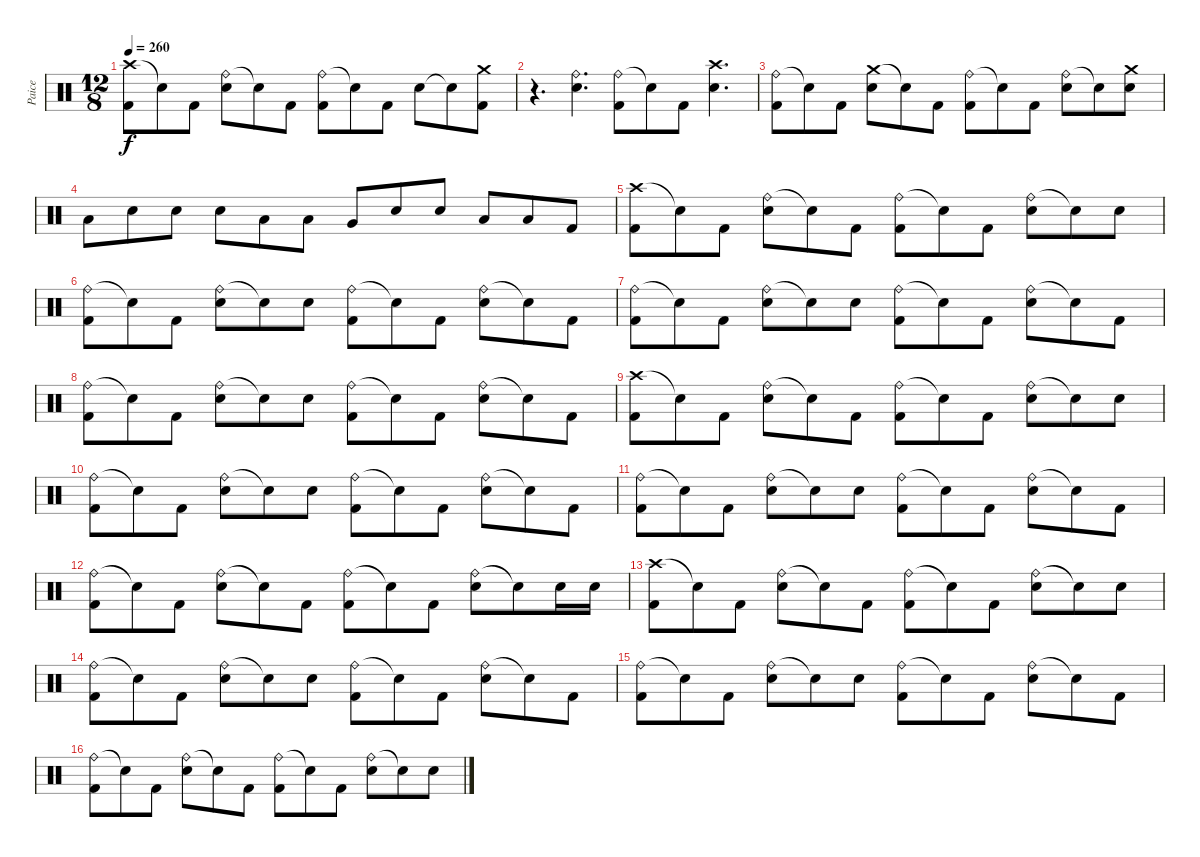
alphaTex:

\track ("Paice" "Paice") {instrument percussion}
\staff {score}
\articulation defaults
\ts (12 8)
\tempo 260
\clef neutral
\ks c
("Crash high (hit)" "Kick (hit) 2").8{dy f} "Snare (hit)"{t}.8 "Kick (hit) 2".8 ("Ride (bell)" "Electric Snare (hit)").8 "Snare (hit)"{t}.8 "Kick (hit) 2".8 ("Ride (bell)" "Kick (hit) 2").8 "Snare (hit)"{t}.8 "Kick (hit) 2".8 "Electric Snare (hit)".8 "Snare (hit)"{t}.8 ("Crash medium (hit)" "Kick (hit) 2").8 |
r.4{d} ("Ride (bell)" "Electric Snare (hit)").4{d} ("Ride (bell)" "Kick (hit) 2").8 "Snare (hit)"{t}.8 "Kick (hit) 2".8 ("Crash high (hit)" "Electric Snare (hit)").4{d} |
("Ride (bell)" "Kick (hit) 2").8 "Snare (hit)"{t}.8 "Kick (hit) 2".8 ("Crash medium (hit)" "Electric Snare (hit)").8 "Snare (hit)"{t}.8 "Kick (hit) 2".8 ("Ride (bell)" "Kick (hit) 2").8 "Snare (hit)"{t}.8 "Kick (hit) 2".8 ("Ride (bell)" "Electric Snare (hit)").8 "Snare (hit)"{t}.8 ("Crash medium (hit)" "Electric Snare (hit)").8 |
"Low Tom (hit)".8 "Electric Snare (hit)".8 "Electric Snare (hit)".8 "Electric Snare (hit)".8 "Low Tom (hit)".8 "Low Tom (hit)".8 "Very Low Tom (hit)".8 "Electric Snare (hit)".8 "Electric Snare (hit)".8 "Low Floor Tom (hit)".8 "Low Floor Tom (hit)".8 "Kick (hit) 2".8 |
("Crash high (hit)" "Kick (hit) 2").8 "Snare (hit)"{t}.8 "Kick (hit) 2".8 ("Ride (bell)" "Electric Snare (hit)").8 "Snare (hit)"{t}.8 "Kick (hit) 2".8 ("Ride (bell)" "Kick (hit) 2").8 "Snare (hit)"{t}.8 "Kick (hit) 2".8 ("Ride (bell)" "Electric Snare (hit)").8 "Snare (hit)"{t}.8 "Electric Snare (hit)".8 |
("Ride (bell)" "Kick (hit) 2").8 "Snare (hit)"{t}.8 "Kick (hit) 2".8 ("Ride (bell)" "Electric Snare (hit)").8 "Snare (hit)"{t}.8 "Electric Snare (hit)".8 ("Ride (bell)" "Kick (hit) 2").8 "Snare (hit)"{t}.8 "Kick (hit) 2".8 ("Ride (bell)" "Electric Snare (hit)").8 "Snare (hit)"{t}.8 "Kick (hit) 2".8 |
("Ride (bell)" "Kick (hit) 2").8 "Snare (hit)"{t}.8 "Kick (hit) 2".8 ("Ride (bell)" "Electric Snare (hit)").8 "Snare (hit)"{t}.8 "Electric Snare (hit)".8 ("Ride (bell)" "Kick (hit) 2").8 "Snare (hit)"{t}.8 "Kick (hit) 2".8 ("Ride (bell)" "Electric Snare (hit)").8 "Snare (hit)"{t}.8 "Kick (hit) 2".8 |
("Ride (bell)" "Kick (hit) 2").8 "Snare (hit)"{t}.8 "Kick (hit) 2".8 ("Ride (bell)" "Electric Snare (hit)").8 "Snare (hit)"{t}.8 "Electric Snare (hit)".8 ("Ride (bell)" "Kick (hit) 2").8 "Snare (hit)"{t}.8 "Kick (hit) 2".8 ("Ride (bell)" "Electric Snare (hit)").8 "Snare (hit)"{t}.8 "Kick (hit) 2".8 |
("Crash high (hit)" "Kick (hit) 2").8 "Snare (hit)"{t}.8 "Kick (hit) 2".8 ("Ride (bell)" "Electric Snare (hit)").8 "Snare (hit)"{t}.8 "Kick (hit) 2".8 ("Ride (bell)" "Kick (hit) 2").8 "Snare (hit)"{t}.8 "Kick (hit) 2".8 ("Ride (bell)" "Electric Snare (hit)").8 "Snare (hit)"{t}.8 "Electric Snare (hit)".8 |
("Ride (bell)" "Kick (hit) 2").8 "Snare (hit)"{t}.8 "Kick (hit) 2".8 ("Ride (bell)" "Electric Snare (hit)").8 "Snare (hit)"{t}.8 "Electric Snare (hit)".8 ("Ride (bell)" "Kick (hit) 2").8 "Snare (hit)"{t}.8 "Kick (hit) 2".8 ("Ride (bell)" "Electric Snare (hit)").8 "Snare (hit)"{t}.8 "Kick (hit) 2".8 |
("Ride (bell)" "Kick (hit) 2").8 "Snare (hit)"{t}.8 "Kick (hit) 2".8 ("Ride (bell)" "Electric Snare (hit)").8 "Snare (hit)"{t}.8 "Electric Snare (hit)".8 ("Ride (bell)" "Kick (hit) 2").8 "Snare (hit)"{t}.8 "Kick (hit) 2".8 ("Ride (bell)" "Electric Snare (hit)").8 "Snare (hit)"{t}.8 "Kick (hit) 2".8 |
("Ride (bell)" "Kick (hit) 2").8 "Snare (hit)"{t}.8 "Kick (hit) 2".8 ("Ride (bell)" "Electric Snare (hit)").8 "Snare (hit)"{t}.8 "Kick (hit) 2".8 ("Ride (bell)" "Kick (hit) 2").8 "Snare (hit)"{t}.8 "Kick (hit) 2".8 ("Ride (bell)" "Electric Snare (hit)").8 "Snare (hit)"{t}.8 "Electric Snare (hit)".16 "Electric Snare (hit)".16 |
("Crash high (hit)" "Kick (hit) 2").8 "Snare (hit)"{t}.8 "Kick (hit) 2".8 ("Ride (bell)" "Electric Snare (hit)").8 "Snare (hit)"{t}.8 "Kick (hit) 2".8 ("Ride (bell)" "Kick (hit) 2").8 "Snare (hit)"{t}.8 "Kick (hit) 2".8 ("Ride (bell)" "Electric Snare (hit)").8 "Snare (hit)"{t}.8 "Electric Snare (hit)".8 |
("Ride (bell)" "Kick (hit) 2").8 "Snare (hit)"{t}.8 "Kick (hit) 2".8 ("Ride (bell)" "Electric Snare (hit)").8 "Snare (hit)"{t}.8 "Electric Snare (hit)".8 ("Ride (bell)" "Kick (hit) 2").8 "Snare (hit)"{t}.8 "Kick (hit) 2".8 ("Ride (bell)" "Electric Snare (hit)").8 "Snare (hit)"{t}.8 "Kick (hit) 2".8 |
("Ride (bell)" "Kick (hit) 2").8 "Snare (hit)"{t}.8 "Kick (hit) 2".8 ("Ride (bell)" "Electric Snare (hit)").8 "Snare (hit)"{t}.8 "Electric Snare (hit)".8 ("Ride (bell)" "Kick (hit) 2").8 "Snare (hit)"{t}.8 "Kick (hit) 2".8 ("Ride (bell)" "Electric Snare (hit)").8 "Snare (hit)"{t}.8 "Kick (hit) 2".8 |
("Ride (bell)" "Kick (hit) 2").8 "Snare (hit)"{t}.8 "Kick (hit) 2".8 ("Ride (bell)" "Electric Snare (hit)").8 "Snare (hit)"{t}.8 "Kick (hit) 2".8 ("Ride (bell)" "Kick (hit) 2").8 "Snare (hit)"{t}.8 "Kick (hit) 2".8 ("Ride (bell)" "Electric Snare (hit)").8 "Snare (hit)"{t}.8 "Electric Snare (hit)".8
